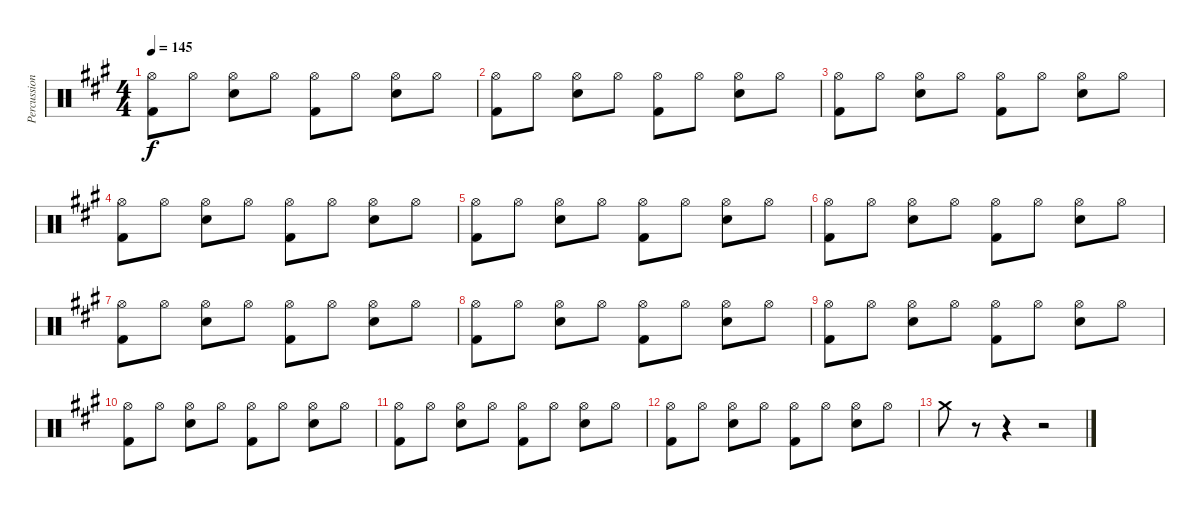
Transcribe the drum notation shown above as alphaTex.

\track ("Percussion" "Percussion") {instrument percussion}
\staff {score}
\articulation defaults
\ts (4 4)
\tempo 145
\clef neutral
\ks a
("Hi-Hat (open)" "Kick (hit) 2").8{dy f} "Hi-Hat (open)".8 ("Hi-Hat (open)" "Snare (hit) 2").8 "Hi-Hat (open)".8 ("Hi-Hat (open)" "Kick (hit) 2").8 "Hi-Hat (open)".8 ("Hi-Hat (open)" "Snare (hit) 2").8 "Hi-Hat (open)".8 |
("Hi-Hat (open)" "Kick (hit) 2").8 "Hi-Hat (open)".8 ("Hi-Hat (open)" "Snare (hit) 2").8 "Hi-Hat (open)".8 ("Hi-Hat (open)" "Kick (hit) 2").8 "Hi-Hat (open)".8 ("Hi-Hat (open)" "Snare (hit) 2").8 "Hi-Hat (open)".8 |
("Hi-Hat (open)" "Kick (hit) 2").8 "Hi-Hat (open)".8 ("Hi-Hat (open)" "Snare (hit) 2").8 "Hi-Hat (open)".8 ("Hi-Hat (open)" "Kick (hit) 2").8 "Hi-Hat (open)".8 ("Hi-Hat (open)" "Snare (hit) 2").8 "Hi-Hat (open)".8 |
("Hi-Hat (open)" "Kick (hit) 2").8 "Hi-Hat (open)".8 ("Hi-Hat (open)" "Snare (hit) 2").8 "Hi-Hat (open)".8 ("Hi-Hat (open)" "Kick (hit) 2").8 "Hi-Hat (open)".8 ("Hi-Hat (open)" "Snare (hit) 2").8 "Hi-Hat (open)".8 |
("Hi-Hat (open)" "Kick (hit) 2").8 "Hi-Hat (open)".8 ("Hi-Hat (open)" "Snare (hit) 2").8 "Hi-Hat (open)".8 ("Hi-Hat (open)" "Kick (hit) 2").8 "Hi-Hat (open)".8 ("Hi-Hat (open)" "Snare (hit) 2").8 "Hi-Hat (open)".8 |
("Hi-Hat (open)" "Kick (hit) 2").8 "Hi-Hat (open)".8 ("Hi-Hat (open)" "Snare (hit) 2").8 "Hi-Hat (open)".8 ("Hi-Hat (open)" "Kick (hit) 2").8 "Hi-Hat (open)".8 ("Hi-Hat (open)" "Snare (hit) 2").8 "Hi-Hat (open)".8 |
("Hi-Hat (open)" "Kick (hit) 2").8 "Hi-Hat (open)".8 ("Hi-Hat (open)" "Snare (hit) 2").8 "Hi-Hat (open)".8 ("Hi-Hat (open)" "Kick (hit) 2").8 "Hi-Hat (open)".8 ("Hi-Hat (open)" "Snare (hit) 2").8 "Hi-Hat (open)".8 |
("Hi-Hat (open)" "Kick (hit) 2").8 "Hi-Hat (open)".8 ("Hi-Hat (open)" "Snare (hit) 2").8 "Hi-Hat (open)".8 ("Hi-Hat (open)" "Kick (hit) 2").8 "Hi-Hat (open)".8 ("Hi-Hat (open)" "Snare (hit) 2").8 "Hi-Hat (open)".8 |
("Hi-Hat (open)" "Kick (hit) 2").8 "Hi-Hat (open)".8 ("Hi-Hat (open)" "Snare (hit) 2").8 "Hi-Hat (open)".8 ("Hi-Hat (open)" "Kick (hit) 2").8 "Hi-Hat (open)".8 ("Hi-Hat (open)" "Snare (hit) 2").8 "Hi-Hat (open)".8 |
("Hi-Hat (open)" "Kick (hit) 2").8 "Hi-Hat (open)".8 ("Hi-Hat (open)" "Snare (hit) 2").8 "Hi-Hat (open)".8 ("Hi-Hat (open)" "Kick (hit) 2").8 "Hi-Hat (open)".8 ("Hi-Hat (open)" "Snare (hit) 2").8 "Hi-Hat (open)".8 |
("Hi-Hat (open)" "Kick (hit) 2").8 "Hi-Hat (open)".8 ("Hi-Hat (open)" "Snare (hit) 2").8 "Hi-Hat (open)".8 ("Hi-Hat (open)" "Kick (hit) 2").8 "Hi-Hat (open)".8 ("Hi-Hat (open)" "Snare (hit) 2").8 "Hi-Hat (open)".8 |
("Hi-Hat (open)" "Kick (hit) 2").8 "Hi-Hat (open)".8 ("Hi-Hat (open)" "Snare (hit) 2").8 "Hi-Hat (open)".8 ("Hi-Hat (open)" "Kick (hit) 2").8 "Hi-Hat (open)".8 ("Hi-Hat (open)" "Snare (hit) 2").8 "Hi-Hat (open)".8 |
"Crash medium (hit)".8 r.8 r.4 r.2
